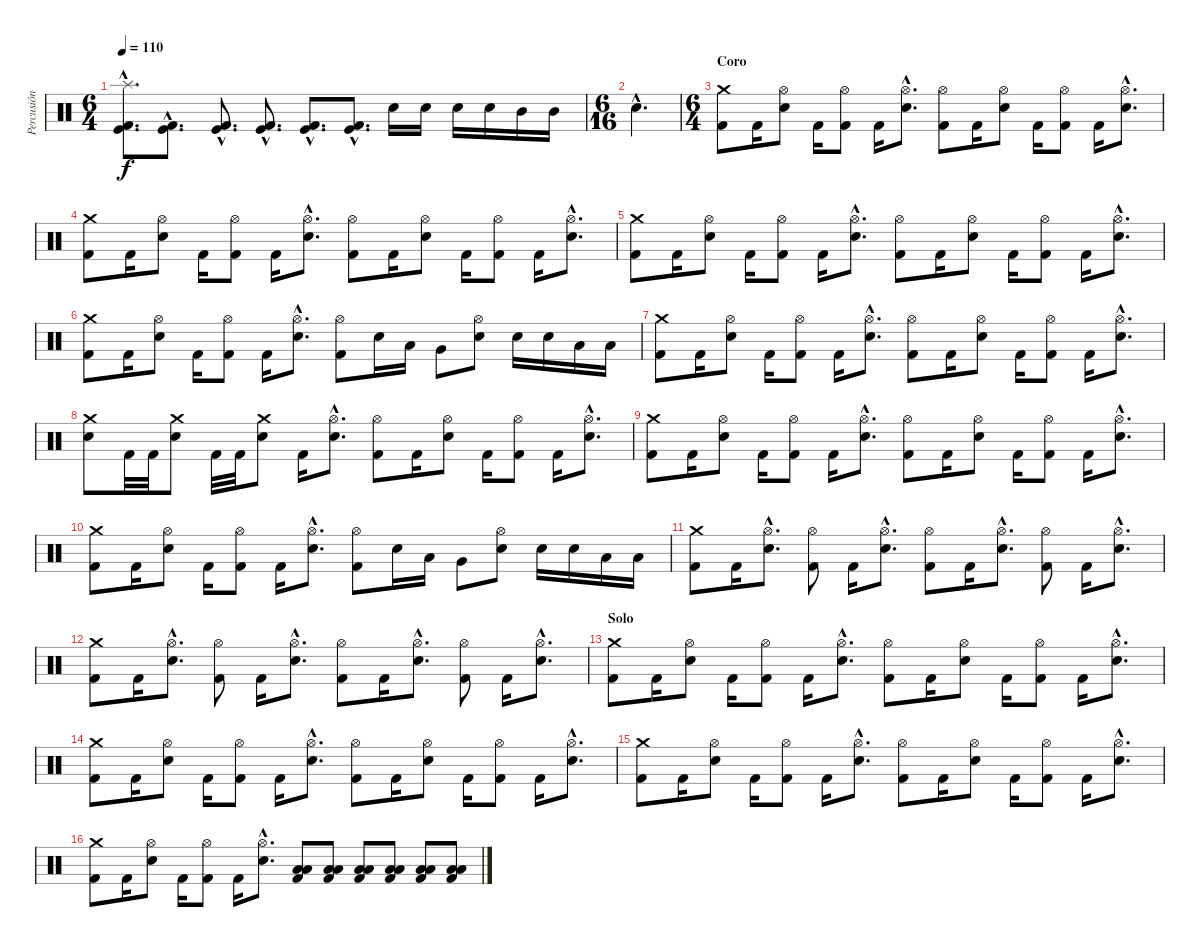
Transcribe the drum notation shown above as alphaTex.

\track ("Percusión" "Percusión") {instrument percussion}
\staff {score}
\articulation defaults
\ts (6 4)
\tempo 110
\clef neutral
\ks c
("Splash (hit)"{hac} "Kick (hit)"{hac} "Kick (hit) 2"{hac}).8{d dy f} ("Kick (hit)"{hac} "Kick (hit) 2"{hac}).8{d} ("Kick (hit)"{hac} "Kick (hit) 2"{hac}).8{d} ("Kick (hit)"{hac} "Kick (hit) 2"{hac}).8{d} ("Kick (hit)"{hac} "Kick (hit) 2"{hac}).8{d} ("Kick (hit)"{hac} "Kick (hit) 2"{hac}).8{d} "Snare (hit) 2".16 "Snare (hit) 2".16 "Snare (hit) 2".16 "Snare (hit) 2".16 "Mid Tom (hit)".16 "Mid Tom (hit)".16 |
\ts (6 16)
"Snare (hit) 2"{hac}.4{d} |
\ts (6 4)
\section ("" "Coro")
("Crash medium (hit)" "Kick (hit) 2").8 "Kick (hit) 2".16 ("Hi-Hat (open)" "Snare (hit) 2").8 "Kick (hit) 2".16 ("Hi-Hat (open)" "Kick (hit) 2").8 "Kick (hit) 2".16 ("Hi-Hat (open)"{hac} "Snare (hit) 2"{hac}).8{d} ("Hi-Hat (open)" "Kick (hit) 2").8 "Kick (hit) 2".16 ("Hi-Hat (open)" "Snare (hit) 2").8 "Kick (hit) 2".16 ("Hi-Hat (open)" "Kick (hit) 2").8 "Kick (hit) 2".16 ("Hi-Hat (open)" "Snare (hit) 2"{hac}).8{d} |
("Crash medium (hit)" "Kick (hit) 2").8 "Kick (hit) 2".16 ("Hi-Hat (open)" "Snare (hit) 2").8 "Kick (hit) 2".16 ("Hi-Hat (open)" "Kick (hit) 2").8 "Kick (hit) 2".16 ("Hi-Hat (open)"{hac} "Snare (hit) 2"{hac}).8{d} ("Hi-Hat (open)" "Kick (hit) 2").8 "Kick (hit) 2".16 ("Hi-Hat (open)" "Snare (hit) 2").8 "Kick (hit) 2".16 ("Hi-Hat (open)" "Kick (hit) 2").8 "Kick (hit) 2".16 ("Hi-Hat (open)" "Snare (hit) 2"{hac}).8{d} |
("Crash medium (hit)" "Kick (hit) 2").8 "Kick (hit) 2".16 ("Hi-Hat (open)" "Snare (hit) 2").8 "Kick (hit) 2".16 ("Hi-Hat (open)" "Kick (hit) 2").8 "Kick (hit) 2".16 ("Hi-Hat (open)"{hac} "Snare (hit) 2"{hac}).8{d} ("Hi-Hat (open)" "Kick (hit) 2").8 "Kick (hit) 2".16 ("Hi-Hat (open)" "Snare (hit) 2").8 "Kick (hit) 2".16 ("Hi-Hat (open)" "Kick (hit) 2").8 "Kick (hit) 2".16 ("Hi-Hat (open)" "Snare (hit) 2"{hac}).8{d} |
("Crash medium (hit)" "Kick (hit) 2").8 "Kick (hit) 2".16 ("Hi-Hat (open)" "Snare (hit) 2").8 "Kick (hit) 2".16 ("Hi-Hat (open)" "Kick (hit) 2").8 "Kick (hit) 2".16 ("Hi-Hat (open)"{hac} "Snare (hit) 2"{hac}).8{d} ("Hi-Hat (open)" "Kick (hit) 2").8 "Snare (hit) 2".16 "Low Tom (hit)".16 "Very Low Tom (hit)".8 ("Hi-Hat (open)" "Snare (hit) 2").8 "Snare (hit) 2".16 "Snare (hit) 2".16 "Low Tom (hit)".16 "Low Tom (hit)".16 |
("Crash medium (hit)" "Kick (hit) 2").8 "Kick (hit) 2".16 ("Hi-Hat (open)" "Snare (hit) 2").8 "Kick (hit) 2".16 ("Hi-Hat (open)" "Kick (hit) 2").8 "Kick (hit) 2".16 ("Hi-Hat (open)"{hac} "Snare (hit) 2"{hac}).8{d} ("Hi-Hat (open)" "Kick (hit) 2").8 "Kick (hit) 2".16 ("Hi-Hat (open)" "Snare (hit) 2").8 "Kick (hit) 2".16 ("Hi-Hat (open)" "Kick (hit) 2").8 "Kick (hit) 2".16 ("Hi-Hat (open)" "Snare (hit) 2"{hac}).8{d} |
("Crash medium (hit)" "Snare (hit) 2").8 "Kick (hit) 2".32 "Kick (hit) 2".32 ("Crash medium (hit)" "Snare (hit) 2").8 "Kick (hit) 2".32 "Kick (hit) 2".32 ("Crash medium (hit)" "Snare (hit) 2").8 "Kick (hit) 2".16 ("Hi-Hat (open)"{hac} "Snare (hit) 2"{hac}).8{d} ("Hi-Hat (open)" "Kick (hit) 2").8 "Kick (hit) 2".16 ("Hi-Hat (open)" "Snare (hit) 2").8 "Kick (hit) 2".16 ("Hi-Hat (open)" "Kick (hit) 2").8 "Kick (hit) 2".16 ("Hi-Hat (open)" "Snare (hit) 2"{hac}).8{d} |
("Crash medium (hit)" "Kick (hit) 2").8 "Kick (hit) 2".16 ("Hi-Hat (open)" "Snare (hit) 2").8 "Kick (hit) 2".16 ("Hi-Hat (open)" "Kick (hit) 2").8 "Kick (hit) 2".16 ("Hi-Hat (open)"{hac} "Snare (hit) 2"{hac}).8{d} ("Hi-Hat (open)" "Kick (hit) 2").8 "Kick (hit) 2".16 ("Hi-Hat (open)" "Snare (hit) 2").8 "Kick (hit) 2".16 ("Hi-Hat (open)" "Kick (hit) 2").8 "Kick (hit) 2".16 ("Hi-Hat (open)" "Snare (hit) 2"{hac}).8{d} |
("Crash medium (hit)" "Kick (hit) 2").8 "Kick (hit) 2".16 ("Hi-Hat (open)" "Snare (hit) 2").8 "Kick (hit) 2".16 ("Hi-Hat (open)" "Kick (hit) 2").8 "Kick (hit) 2".16 ("Hi-Hat (open)"{hac} "Snare (hit) 2"{hac}).8{d} ("Hi-Hat (open)" "Kick (hit) 2").8 "Snare (hit) 2".16 "Low Tom (hit)".16 "Very Low Tom (hit)".8 ("Hi-Hat (open)" "Snare (hit) 2").8 "Snare (hit) 2".16 "Snare (hit) 2".16 "Low Tom (hit)".16 "Low Tom (hit)".16 |
("Crash medium (hit)" "Kick (hit) 2").8 "Kick (hit) 2".16 ("Hi-Hat (open)"{hac} "Snare (hit) 2"{hac}).8{d} ("Hi-Hat (open)" "Kick (hit) 2").8 "Kick (hit) 2".16 ("Hi-Hat (open)"{hac} "Snare (hit) 2"{hac}).8{d} ("Hi-Hat (open)" "Kick (hit) 2").8 "Kick (hit) 2".16 ("Hi-Hat (open)"{hac} "Snare (hit) 2"{hac}).8{d} ("Hi-Hat (open)" "Kick (hit) 2").8 "Kick (hit) 2".16 ("Hi-Hat (open)"{hac} "Snare (hit) 2"{hac}).8{d} |
("Crash medium (hit)" "Kick (hit) 2").8 "Kick (hit) 2".16 ("Hi-Hat (open)"{hac} "Snare (hit) 2"{hac}).8{d} ("Hi-Hat (open)" "Kick (hit) 2").8 "Kick (hit) 2".16 ("Hi-Hat (open)"{hac} "Snare (hit) 2"{hac}).8{d} ("Hi-Hat (open)" "Kick (hit) 2").8 "Kick (hit) 2".16 ("Hi-Hat (open)"{hac} "Snare (hit) 2"{hac}).8{d} ("Hi-Hat (open)" "Kick (hit) 2").8 "Kick (hit) 2".16 ("Hi-Hat (open)"{hac} "Snare (hit) 2"{hac}).8{d} |
\section ("" "Solo")
("Crash medium (hit)" "Kick (hit) 2").8 "Kick (hit) 2".16 ("Hi-Hat (open)" "Snare (hit) 2").8 "Kick (hit) 2".16 ("Hi-Hat (open)" "Kick (hit) 2").8 "Kick (hit) 2".16 ("Hi-Hat (open)"{hac} "Snare (hit) 2"{hac}).8{d} ("Hi-Hat (open)" "Kick (hit) 2").8 "Kick (hit) 2".16 ("Hi-Hat (open)" "Snare (hit) 2").8 "Kick (hit) 2".16 ("Hi-Hat (open)" "Kick (hit) 2").8 "Kick (hit) 2".16 ("Hi-Hat (open)" "Snare (hit) 2"{hac}).8{d} |
("Crash medium (hit)" "Kick (hit) 2").8 "Kick (hit) 2".16 ("Hi-Hat (open)" "Snare (hit) 2").8 "Kick (hit) 2".16 ("Hi-Hat (open)" "Kick (hit) 2").8 "Kick (hit) 2".16 ("Hi-Hat (open)"{hac} "Snare (hit) 2"{hac}).8{d} ("Hi-Hat (open)" "Kick (hit) 2").8 "Kick (hit) 2".16 ("Hi-Hat (open)" "Snare (hit) 2").8 "Kick (hit) 2".16 ("Hi-Hat (open)" "Kick (hit) 2").8 "Kick (hit) 2".16 ("Hi-Hat (open)" "Snare (hit) 2"{hac}).8{d} |
("Crash medium (hit)" "Kick (hit) 2").8 "Kick (hit) 2".16 ("Hi-Hat (open)" "Snare (hit) 2").8 "Kick (hit) 2".16 ("Hi-Hat (open)" "Kick (hit) 2").8 "Kick (hit) 2".16 ("Hi-Hat (open)"{hac} "Snare (hit) 2"{hac}).8{d} ("Hi-Hat (open)" "Kick (hit) 2").8 "Kick (hit) 2".16 ("Hi-Hat (open)" "Snare (hit) 2").8 "Kick (hit) 2".16 ("Hi-Hat (open)" "Kick (hit) 2").8 "Kick (hit) 2".16 ("Hi-Hat (open)" "Snare (hit) 2"{hac}).8{d} |
("Crash medium (hit)" "Kick (hit) 2").8 "Kick (hit) 2".16 ("Hi-Hat (open)" "Snare (hit) 2").8 "Kick (hit) 2".16 ("Hi-Hat (open)" "Kick (hit) 2").8 "Kick (hit) 2".16 ("Hi-Hat (open)"{hac} "Snare (hit) 2"{hac}).8{d} ("Low Tom (hit)" "Low Floor Tom (hit)" "Kick (hit) 2").8 ("Low Tom (hit)" "Low Floor Tom (hit)" "Kick (hit) 2").8 ("Low Tom (hit)" "Low Floor Tom (hit)" "Kick (hit) 2").8 ("Low Tom (hit)" "Low Floor Tom (hit)" "Kick (hit) 2").8 ("Low Tom (hit)" "Low Floor Tom (hit)" "Kick (hit) 2").8 ("Low Tom (hit)" "Low Floor Tom (hit)" "Kick (hit) 2").8
